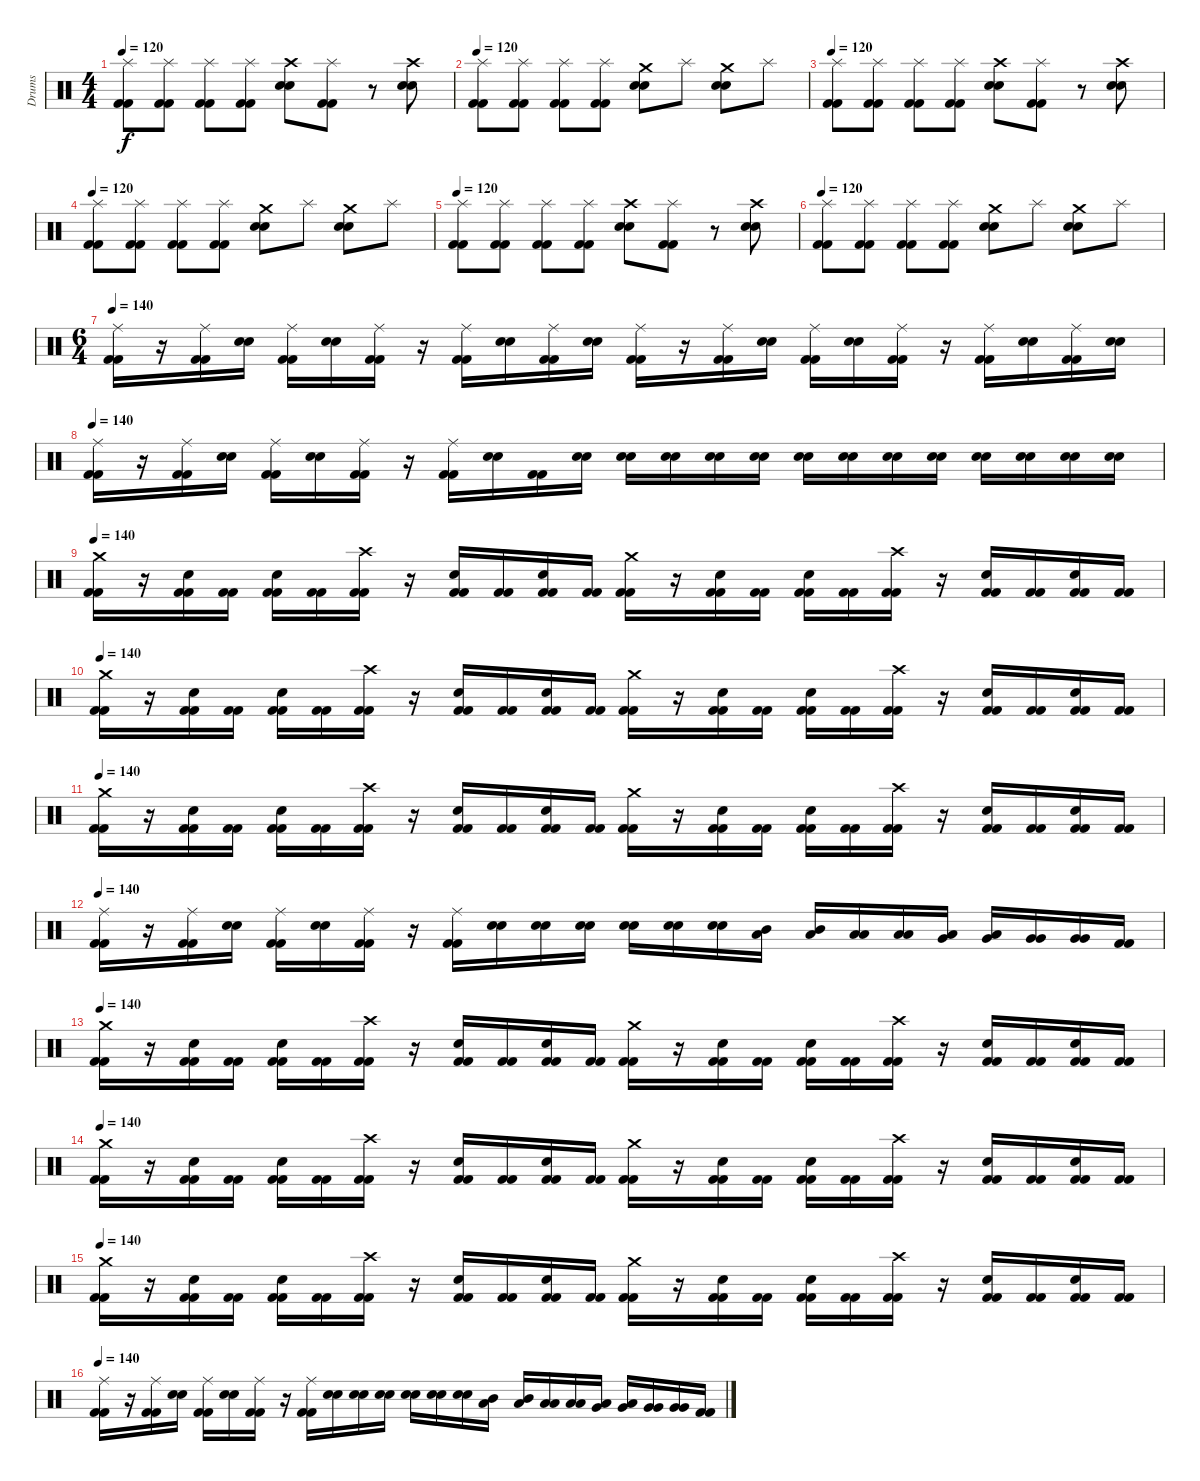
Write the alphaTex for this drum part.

\track ("Drums" "Drums") {instrument percussion}
\staff {score}
\articulation defaults
\ts (4 4)
\tempo 120
\clef neutral
\ks c
("Splash (hit)" "Kick (hit) 2" "Kick (hit) 2").8{dy f} ("Splash (hit)" "Kick (hit) 2" "Kick (hit) 2").8 ("Splash (hit)" "Kick (hit) 2" "Kick (hit) 2").8 ("Splash (hit)" "Kick (hit) 2" "Kick (hit) 2").8 ("Crash high (hit)" "Snare (hit) 2" "Snare (hit) 2").8 ("Splash (hit)" "Kick (hit) 2" "Kick (hit) 2").8 r.8 ("Crash high (hit)" "Snare (hit) 2" "Snare (hit) 2").8 |
\tempo 120
("Splash (hit)" "Kick (hit) 2" "Kick (hit) 2").8 ("Splash (hit)" "Kick (hit) 2" "Kick (hit) 2").8 ("Splash (hit)" "Kick (hit) 2" "Kick (hit) 2").8 ("Splash (hit)" "Kick (hit) 2" "Kick (hit) 2").8 ("Crash medium (hit)" "Snare (hit) 2" "Snare (hit) 2").8 "Splash (hit)".8 ("Crash medium (hit)" "Snare (hit) 2" "Snare (hit) 2").8 "Splash (hit)".8 |
\tempo 120
("Splash (hit)" "Kick (hit) 2" "Kick (hit) 2").8 ("Splash (hit)" "Kick (hit) 2" "Kick (hit) 2").8 ("Splash (hit)" "Kick (hit) 2" "Kick (hit) 2").8 ("Splash (hit)" "Kick (hit) 2" "Kick (hit) 2").8 ("Crash high (hit)" "Snare (hit) 2" "Snare (hit) 2").8 ("Splash (hit)" "Kick (hit) 2" "Kick (hit) 2").8 r.8 ("Crash high (hit)" "Snare (hit) 2" "Snare (hit) 2").8 |
\tempo 120
("Splash (hit)" "Kick (hit) 2" "Kick (hit) 2").8 ("Splash (hit)" "Kick (hit) 2" "Kick (hit) 2").8 ("Splash (hit)" "Kick (hit) 2" "Kick (hit) 2").8 ("Splash (hit)" "Kick (hit) 2" "Kick (hit) 2").8 ("Crash medium (hit)" "Snare (hit) 2" "Snare (hit) 2").8 "Splash (hit)".8 ("Crash medium (hit)" "Snare (hit) 2" "Snare (hit) 2").8 "Splash (hit)".8 |
\tempo 120
("Splash (hit)" "Kick (hit) 2" "Kick (hit) 2").8 ("Splash (hit)" "Kick (hit) 2" "Kick (hit) 2").8 ("Splash (hit)" "Kick (hit) 2" "Kick (hit) 2").8 ("Splash (hit)" "Kick (hit) 2" "Kick (hit) 2").8 ("Crash high (hit)" "Snare (hit) 2" "Snare (hit) 2").8 ("Splash (hit)" "Kick (hit) 2" "Kick (hit) 2").8 r.8 ("Crash high (hit)" "Snare (hit) 2" "Snare (hit) 2").8 |
\tempo 120
("Splash (hit)" "Kick (hit) 2" "Kick (hit) 2").8 ("Splash (hit)" "Kick (hit) 2" "Kick (hit) 2").8 ("Splash (hit)" "Kick (hit) 2" "Kick (hit) 2").8 ("Splash (hit)" "Kick (hit) 2" "Kick (hit) 2").8 ("Crash medium (hit)" "Snare (hit) 2" "Snare (hit) 2").8 "Splash (hit)".8 ("Crash medium (hit)" "Snare (hit) 2" "Snare (hit) 2").8 "Splash (hit)".8 |
\ts (6 4)
\tempo 140
("Ride (middle)" "Kick (hit) 2" "Kick (hit) 2").16 r.16 ("Ride (middle)" "Kick (hit) 2" "Kick (hit) 2").16 ("Snare (hit) 2" "Snare (hit) 2").16 ("Ride (middle)" "Kick (hit) 2" "Kick (hit) 2").16 ("Snare (hit) 2" "Snare (hit) 2").16 ("Ride (middle)" "Kick (hit) 2" "Kick (hit) 2").16 r.16 ("Ride (middle)" "Kick (hit) 2" "Kick (hit) 2").16 ("Snare (hit) 2" "Snare (hit) 2").16 ("Ride (middle)" "Kick (hit) 2" "Kick (hit) 2").16 ("Snare (hit) 2" "Snare (hit) 2").16 ("Ride (middle)" "Kick (hit) 2" "Kick (hit) 2").16 r.16 ("Ride (middle)" "Kick (hit) 2" "Kick (hit) 2").16 ("Snare (hit) 2" "Snare (hit) 2").16 ("Ride (middle)" "Kick (hit) 2" "Kick (hit) 2").16 ("Snare (hit) 2" "Snare (hit) 2").16 ("Ride (middle)" "Kick (hit) 2" "Kick (hit) 2").16 r.16 ("Ride (middle)" "Kick (hit) 2" "Kick (hit) 2").16 ("Snare (hit) 2" "Snare (hit) 2").16 ("Ride (middle)" "Kick (hit) 2" "Kick (hit) 2").16 ("Snare (hit) 2" "Snare (hit) 2").16 |
\tempo 140
("Ride (middle)" "Kick (hit) 2" "Kick (hit) 2").16 r.16 ("Ride (middle)" "Kick (hit) 2" "Kick (hit) 2").16 ("Snare (hit) 2" "Snare (hit) 2").16 ("Ride (middle)" "Kick (hit) 2" "Kick (hit) 2").16 ("Snare (hit) 2" "Snare (hit) 2").16 ("Ride (middle)" "Kick (hit) 2" "Kick (hit) 2").16 r.16 ("Ride (middle)" "Kick (hit) 2" "Kick (hit) 2").16 ("Snare (hit) 2" "Snare (hit) 2").16 ("Kick (hit) 2" "Kick (hit) 2").16 ("Snare (hit) 2" "Snare (hit) 2").16 ("Snare (hit) 2" "Snare (hit) 2").16 ("Snare (hit) 2" "Snare (hit) 2").16 ("Snare (hit) 2" "Snare (hit) 2").16 ("Snare (hit) 2" "Snare (hit) 2").16 ("Snare (hit) 2" "Snare (hit) 2").16 ("Snare (hit) 2" "Snare (hit) 2").16 ("Snare (hit) 2" "Snare (hit) 2").16 ("Snare (hit) 2" "Snare (hit) 2").16 ("Snare (hit) 2" "Snare (hit) 2").16 ("Snare (hit) 2" "Snare (hit) 2").16 ("Snare (hit) 2" "Snare (hit) 2").16 ("Snare (hit) 2" "Snare (hit) 2").16 |
\tempo 140
("Crash medium (hit)" "Kick (hit) 2" "Kick (hit) 2").16 r.16 ("Snare (hit) 2" "Kick (hit) 2" "Kick (hit) 2").16 ("Kick (hit) 2" "Kick (hit) 2").16 ("Snare (hit) 2" "Kick (hit) 2" "Kick (hit) 2").16 ("Kick (hit) 2" "Kick (hit) 2").16 ("Crash high (hit)" "Kick (hit) 2" "Kick (hit) 2").16 r.16 ("Snare (hit) 2" "Kick (hit) 2" "Kick (hit) 2").16 ("Kick (hit) 2" "Kick (hit) 2").16 ("Snare (hit) 2" "Kick (hit) 2" "Kick (hit) 2").16 ("Kick (hit) 2" "Kick (hit) 2").16 ("Crash medium (hit)" "Kick (hit) 2" "Kick (hit) 2").16 r.16 ("Snare (hit) 2" "Kick (hit) 2" "Kick (hit) 2").16 ("Kick (hit) 2" "Kick (hit) 2").16 ("Snare (hit) 2" "Kick (hit) 2" "Kick (hit) 2").16 ("Kick (hit) 2" "Kick (hit) 2").16 ("Crash high (hit)" "Kick (hit) 2" "Kick (hit) 2").16 r.16 ("Snare (hit) 2" "Kick (hit) 2" "Kick (hit) 2").16 ("Kick (hit) 2" "Kick (hit) 2").16 ("Snare (hit) 2" "Kick (hit) 2" "Kick (hit) 2").16 ("Kick (hit) 2" "Kick (hit) 2").16 |
\tempo 140
("Crash medium (hit)" "Kick (hit) 2" "Kick (hit) 2").16 r.16 ("Snare (hit) 2" "Kick (hit) 2" "Kick (hit) 2").16 ("Kick (hit) 2" "Kick (hit) 2").16 ("Snare (hit) 2" "Kick (hit) 2" "Kick (hit) 2").16 ("Kick (hit) 2" "Kick (hit) 2").16 ("Crash high (hit)" "Kick (hit) 2" "Kick (hit) 2").16 r.16 ("Snare (hit) 2" "Kick (hit) 2" "Kick (hit) 2").16 ("Kick (hit) 2" "Kick (hit) 2").16 ("Snare (hit) 2" "Kick (hit) 2" "Kick (hit) 2").16 ("Kick (hit) 2" "Kick (hit) 2").16 ("Crash medium (hit)" "Kick (hit) 2" "Kick (hit) 2").16 r.16 ("Snare (hit) 2" "Kick (hit) 2" "Kick (hit) 2").16 ("Kick (hit) 2" "Kick (hit) 2").16 ("Snare (hit) 2" "Kick (hit) 2" "Kick (hit) 2").16 ("Kick (hit) 2" "Kick (hit) 2").16 ("Crash high (hit)" "Kick (hit) 2" "Kick (hit) 2").16 r.16 ("Snare (hit) 2" "Kick (hit) 2" "Kick (hit) 2").16 ("Kick (hit) 2" "Kick (hit) 2").16 ("Snare (hit) 2" "Kick (hit) 2" "Kick (hit) 2").16 ("Kick (hit) 2" "Kick (hit) 2").16 |
\tempo 140
("Crash medium (hit)" "Kick (hit) 2" "Kick (hit) 2").16 r.16 ("Snare (hit) 2" "Kick (hit) 2" "Kick (hit) 2").16 ("Kick (hit) 2" "Kick (hit) 2").16 ("Snare (hit) 2" "Kick (hit) 2" "Kick (hit) 2").16 ("Kick (hit) 2" "Kick (hit) 2").16 ("Crash high (hit)" "Kick (hit) 2" "Kick (hit) 2").16 r.16 ("Snare (hit) 2" "Kick (hit) 2" "Kick (hit) 2").16 ("Kick (hit) 2" "Kick (hit) 2").16 ("Snare (hit) 2" "Kick (hit) 2" "Kick (hit) 2").16 ("Kick (hit) 2" "Kick (hit) 2").16 ("Crash medium (hit)" "Kick (hit) 2" "Kick (hit) 2").16 r.16 ("Snare (hit) 2" "Kick (hit) 2" "Kick (hit) 2").16 ("Kick (hit) 2" "Kick (hit) 2").16 ("Snare (hit) 2" "Kick (hit) 2" "Kick (hit) 2").16 ("Kick (hit) 2" "Kick (hit) 2").16 ("Crash high (hit)" "Kick (hit) 2" "Kick (hit) 2").16 r.16 ("Snare (hit) 2" "Kick (hit) 2" "Kick (hit) 2").16 ("Kick (hit) 2" "Kick (hit) 2").16 ("Snare (hit) 2" "Kick (hit) 2" "Kick (hit) 2").16 ("Kick (hit) 2" "Kick (hit) 2").16 |
\tempo 140
("Ride (middle)" "Kick (hit) 2" "Kick (hit) 2").16 r.16 ("Ride (middle)" "Kick (hit) 2" "Kick (hit) 2").16 ("Snare (hit) 2" "Snare (hit) 2").16 ("Ride (middle)" "Kick (hit) 2" "Kick (hit) 2").16 ("Snare (hit) 2" "Snare (hit) 2").16 ("Ride (middle)" "Kick (hit) 2" "Kick (hit) 2").16 r.16 ("Ride (middle)" "Kick (hit) 2" "Kick (hit) 2").16 ("Snare (hit) 2" "Snare (hit) 2").16 ("Snare (hit) 2" "Snare (hit) 2").16 ("Snare (hit) 2" "Snare (hit) 2").16 ("Snare (hit) 2" "Snare (hit) 2").16 ("Snare (hit) 2" "Snare (hit) 2").16 ("Snare (hit) 2" "Snare (hit) 2").16 ("Mid Tom (hit)" "Low Tom (hit)").16 ("Mid Tom (hit)" "Low Tom (hit)").16 ("Low Tom (hit)" "Low Tom (hit)").16 ("Low Tom (hit)" "Low Tom (hit)").16 ("Very Low Tom (hit)" "Low Tom (hit)").16 ("Very Low Tom (hit)" "Low Tom (hit)").16 ("Very Low Tom (hit)" "Very Low Tom (hit)").16 ("Very Low Tom (hit)" "Very Low Tom (hit)").16 ("Kick (hit) 2" "Kick (hit) 2").16 |
\tempo 140
("Crash medium (hit)" "Kick (hit) 2" "Kick (hit) 2").16 r.16 ("Snare (hit) 2" "Kick (hit) 2" "Kick (hit) 2").16 ("Kick (hit) 2" "Kick (hit) 2").16 ("Snare (hit) 2" "Kick (hit) 2" "Kick (hit) 2").16 ("Kick (hit) 2" "Kick (hit) 2").16 ("Crash high (hit)" "Kick (hit) 2" "Kick (hit) 2").16 r.16 ("Snare (hit) 2" "Kick (hit) 2" "Kick (hit) 2").16 ("Kick (hit) 2" "Kick (hit) 2").16 ("Snare (hit) 2" "Kick (hit) 2" "Kick (hit) 2").16 ("Kick (hit) 2" "Kick (hit) 2").16 ("Crash medium (hit)" "Kick (hit) 2" "Kick (hit) 2").16 r.16 ("Snare (hit) 2" "Kick (hit) 2" "Kick (hit) 2").16 ("Kick (hit) 2" "Kick (hit) 2").16 ("Snare (hit) 2" "Kick (hit) 2" "Kick (hit) 2").16 ("Kick (hit) 2" "Kick (hit) 2").16 ("Crash high (hit)" "Kick (hit) 2" "Kick (hit) 2").16 r.16 ("Snare (hit) 2" "Kick (hit) 2" "Kick (hit) 2").16 ("Kick (hit) 2" "Kick (hit) 2").16 ("Snare (hit) 2" "Kick (hit) 2" "Kick (hit) 2").16 ("Kick (hit) 2" "Kick (hit) 2").16 |
\tempo 140
("Crash medium (hit)" "Kick (hit) 2" "Kick (hit) 2").16 r.16 ("Snare (hit) 2" "Kick (hit) 2" "Kick (hit) 2").16 ("Kick (hit) 2" "Kick (hit) 2").16 ("Snare (hit) 2" "Kick (hit) 2" "Kick (hit) 2").16 ("Kick (hit) 2" "Kick (hit) 2").16 ("Crash high (hit)" "Kick (hit) 2" "Kick (hit) 2").16 r.16 ("Snare (hit) 2" "Kick (hit) 2" "Kick (hit) 2").16 ("Kick (hit) 2" "Kick (hit) 2").16 ("Snare (hit) 2" "Kick (hit) 2" "Kick (hit) 2").16 ("Kick (hit) 2" "Kick (hit) 2").16 ("Crash medium (hit)" "Kick (hit) 2" "Kick (hit) 2").16 r.16 ("Snare (hit) 2" "Kick (hit) 2" "Kick (hit) 2").16 ("Kick (hit) 2" "Kick (hit) 2").16 ("Snare (hit) 2" "Kick (hit) 2" "Kick (hit) 2").16 ("Kick (hit) 2" "Kick (hit) 2").16 ("Crash high (hit)" "Kick (hit) 2" "Kick (hit) 2").16 r.16 ("Snare (hit) 2" "Kick (hit) 2" "Kick (hit) 2").16 ("Kick (hit) 2" "Kick (hit) 2").16 ("Snare (hit) 2" "Kick (hit) 2" "Kick (hit) 2").16 ("Kick (hit) 2" "Kick (hit) 2").16 |
\tempo 140
("Crash medium (hit)" "Kick (hit) 2" "Kick (hit) 2").16 r.16 ("Snare (hit) 2" "Kick (hit) 2" "Kick (hit) 2").16 ("Kick (hit) 2" "Kick (hit) 2").16 ("Snare (hit) 2" "Kick (hit) 2" "Kick (hit) 2").16 ("Kick (hit) 2" "Kick (hit) 2").16 ("Crash high (hit)" "Kick (hit) 2" "Kick (hit) 2").16 r.16 ("Snare (hit) 2" "Kick (hit) 2" "Kick (hit) 2").16 ("Kick (hit) 2" "Kick (hit) 2").16 ("Snare (hit) 2" "Kick (hit) 2" "Kick (hit) 2").16 ("Kick (hit) 2" "Kick (hit) 2").16 ("Crash medium (hit)" "Kick (hit) 2" "Kick (hit) 2").16 r.16 ("Snare (hit) 2" "Kick (hit) 2" "Kick (hit) 2").16 ("Kick (hit) 2" "Kick (hit) 2").16 ("Snare (hit) 2" "Kick (hit) 2" "Kick (hit) 2").16 ("Kick (hit) 2" "Kick (hit) 2").16 ("Crash high (hit)" "Kick (hit) 2" "Kick (hit) 2").16 r.16 ("Snare (hit) 2" "Kick (hit) 2" "Kick (hit) 2").16 ("Kick (hit) 2" "Kick (hit) 2").16 ("Snare (hit) 2" "Kick (hit) 2" "Kick (hit) 2").16 ("Kick (hit) 2" "Kick (hit) 2").16 |
\tempo 140
("Ride (middle)" "Kick (hit) 2" "Kick (hit) 2").16 r.16 ("Ride (middle)" "Kick (hit) 2" "Kick (hit) 2").16 ("Snare (hit) 2" "Snare (hit) 2").16 ("Ride (middle)" "Kick (hit) 2" "Kick (hit) 2").16 ("Snare (hit) 2" "Snare (hit) 2").16 ("Ride (middle)" "Kick (hit) 2" "Kick (hit) 2").16 r.16 ("Ride (middle)" "Kick (hit) 2" "Kick (hit) 2").16 ("Snare (hit) 2" "Snare (hit) 2").16 ("Snare (hit) 2" "Snare (hit) 2").16 ("Snare (hit) 2" "Snare (hit) 2").16 ("Snare (hit) 2" "Snare (hit) 2").16 ("Snare (hit) 2" "Snare (hit) 2").16 ("Snare (hit) 2" "Snare (hit) 2").16 ("Mid Tom (hit)" "Low Tom (hit)").16 ("Mid Tom (hit)" "Low Tom (hit)").16 ("Low Tom (hit)" "Low Tom (hit)").16 ("Low Tom (hit)" "Low Tom (hit)").16 ("Very Low Tom (hit)" "Low Tom (hit)").16 ("Very Low Tom (hit)" "Low Tom (hit)").16 ("Very Low Tom (hit)" "Very Low Tom (hit)").16 ("Very Low Tom (hit)" "Very Low Tom (hit)").16 ("Kick (hit) 2" "Kick (hit) 2").16
